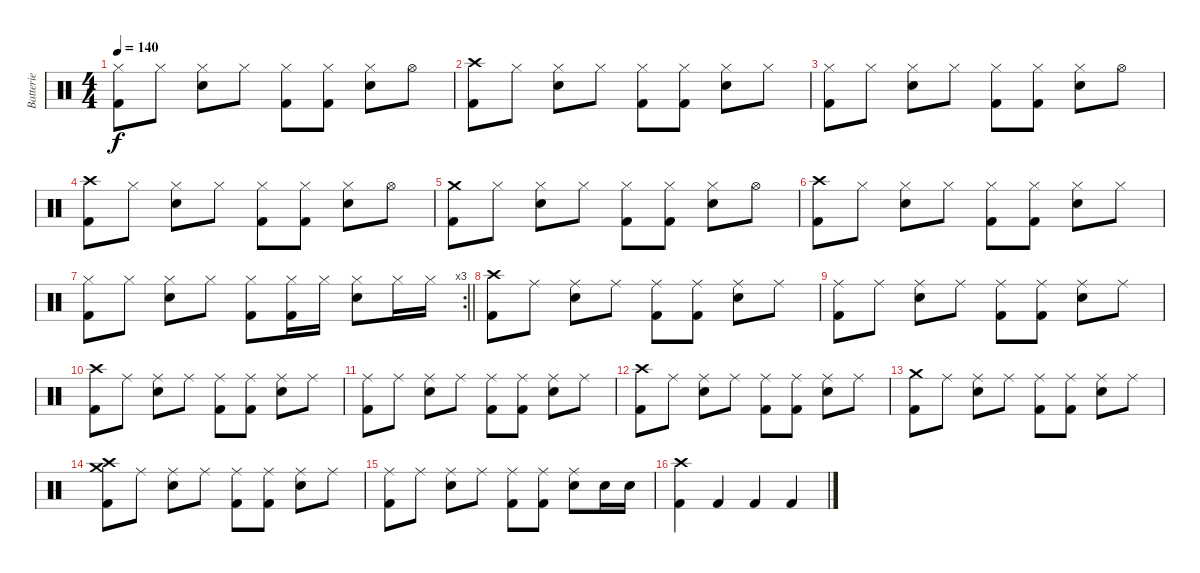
\track ("Batterie" "Batterie") {instrument percussion}
\staff {score}
\articulation defaults
\ts (4 4)
\tempo 140
\clef neutral
\ks c
("Hi-Hat (closed)" "Kick (hit) 2").8{dy f} "Hi-Hat (closed)".8 ("Hi-Hat (closed)" "Snare (hit) 2").8 "Hi-Hat (closed)".8 ("Hi-Hat (closed)" "Kick (hit) 2").8 ("Hi-Hat (closed)" "Kick (hit) 2").8 ("Hi-Hat (closed)" "Snare (hit) 2").8 "Hi-Hat (open)".8 |
("Crash high (hit)" "Kick (hit) 2").8 "Hi-Hat (closed)".8 ("Hi-Hat (closed)" "Snare (hit) 2").8 "Hi-Hat (closed)".8 ("Hi-Hat (closed)" "Kick (hit) 2").8 ("Hi-Hat (closed)" "Kick (hit) 2").8 ("Hi-Hat (closed)" "Snare (hit) 2").8 "Hi-Hat (closed)".8 |
("Hi-Hat (closed)" "Kick (hit) 2").8 "Hi-Hat (closed)".8 ("Hi-Hat (closed)" "Snare (hit) 2").8 "Hi-Hat (closed)".8 ("Hi-Hat (closed)" "Kick (hit) 2").8 ("Hi-Hat (closed)" "Kick (hit) 2").8 ("Hi-Hat (closed)" "Snare (hit) 2").8 "Hi-Hat (open)".8 |
("Crash high (hit)" "Kick (hit) 2").8 "Hi-Hat (closed)".8 ("Hi-Hat (closed)" "Snare (hit) 2").8 "Hi-Hat (closed)".8 ("Hi-Hat (closed)" "Kick (hit) 2").8 ("Hi-Hat (closed)" "Kick (hit) 2").8 ("Hi-Hat (closed)" "Snare (hit) 2").8 "Hi-Hat (open)".8 |
("Crash medium (hit)" "Kick (hit) 2").8 "Hi-Hat (closed)".8 ("Hi-Hat (closed)" "Snare (hit) 2").8 "Hi-Hat (closed)".8 ("Hi-Hat (closed)" "Kick (hit) 2").8 ("Hi-Hat (closed)" "Kick (hit) 2").8 ("Hi-Hat (closed)" "Snare (hit) 2").8 "Hi-Hat (open)".8 |
("Crash high (hit)" "Kick (hit) 2").8 "Hi-Hat (closed)".8 ("Hi-Hat (closed)" "Snare (hit) 2").8 "Hi-Hat (closed)".8 ("Hi-Hat (closed)" "Kick (hit) 2").8 ("Hi-Hat (closed)" "Kick (hit) 2").8 ("Hi-Hat (closed)" "Snare (hit) 2").8 "Hi-Hat (closed)".8 |
\rc 3
\barLineRight lightlight
("Hi-Hat (closed)" "Kick (hit) 2").8 "Hi-Hat (closed)".8 ("Hi-Hat (closed)" "Snare (hit) 2").8 "Hi-Hat (closed)".8 ("Hi-Hat (closed)" "Kick (hit) 2").8 ("Hi-Hat (closed)" "Kick (hit) 2").16 "Hi-Hat (closed)".16 ("Hi-Hat (closed)" "Snare (hit) 2").8 "Hi-Hat (closed)".16 "Hi-Hat (closed)".16 |
("Crash high (hit)" "Kick (hit) 2").8 "Ride (middle)".8 ("Ride (middle)" "Snare (hit) 2").8 "Ride (middle)".8 ("Ride (middle)" "Kick (hit) 2").8 ("Ride (middle)" "Kick (hit) 2").8 ("Ride (middle)" "Snare (hit) 2").8 "Ride (middle)".8 |
("Ride (middle)" "Kick (hit) 2").8 "Ride (middle)".8 ("Ride (middle)" "Snare (hit) 2").8 "Ride (middle)".8 ("Ride (middle)" "Kick (hit) 2").8 ("Ride (middle)" "Kick (hit) 2").8 ("Ride (middle)" "Snare (hit) 2").8 "Ride (middle)".8 |
("Crash high (hit)" "Kick (hit) 2").8 "Ride (middle)".8 ("Ride (middle)" "Snare (hit) 2").8 "Ride (middle)".8 ("Ride (middle)" "Kick (hit) 2").8 ("Ride (middle)" "Kick (hit) 2").8 ("Ride (middle)" "Snare (hit) 2").8 "Ride (middle)".8 |
("Ride (middle)" "Kick (hit) 2").8 "Ride (middle)".8 ("Ride (middle)" "Snare (hit) 2").8 "Ride (middle)".8 ("Ride (middle)" "Kick (hit) 2").8 ("Ride (middle)" "Kick (hit) 2").8 ("Ride (middle)" "Snare (hit) 2").8 "Ride (middle)".8 |
("Crash high (hit)" "Kick (hit) 2").8 "Ride (middle)".8 ("Ride (middle)" "Snare (hit) 2").8 "Ride (middle)".8 ("Ride (middle)" "Kick (hit) 2").8 ("Ride (middle)" "Kick (hit) 2").8 ("Ride (middle)" "Snare (hit) 2").8 "Ride (middle)".8 |
("Crash medium (hit)" "Kick (hit) 2").8 "Ride (middle)".8 ("Ride (middle)" "Snare (hit) 2").8 "Ride (middle)".8 ("Ride (middle)" "Kick (hit) 2").8 ("Ride (middle)" "Kick (hit) 2").8 ("Ride (middle)" "Snare (hit) 2").8 "Ride (middle)".8 |
("Crash high (hit)" "Crash medium (hit)" "Kick (hit) 2").8 "Ride (middle)".8 ("Ride (middle)" "Snare (hit) 2").8 "Ride (middle)".8 ("Ride (middle)" "Kick (hit) 2").8 ("Ride (middle)" "Kick (hit) 2").8 ("Ride (middle)" "Snare (hit) 2").8 "Ride (middle)".8 |
("Ride (middle)" "Kick (hit) 2").8 "Ride (middle)".8 ("Ride (middle)" "Snare (hit) 2").8 "Ride (middle)".8 ("Ride (middle)" "Kick (hit) 2").8 ("Ride (middle)" "Kick (hit) 2").8 ("Ride (middle)" "Snare (hit) 2").8 "Snare (hit) 2".16 "Snare (hit) 2".16 |
("Crash high (hit)" "Kick (hit) 2").4 "Kick (hit) 2".4 "Kick (hit) 2".4 "Kick (hit) 2".4
